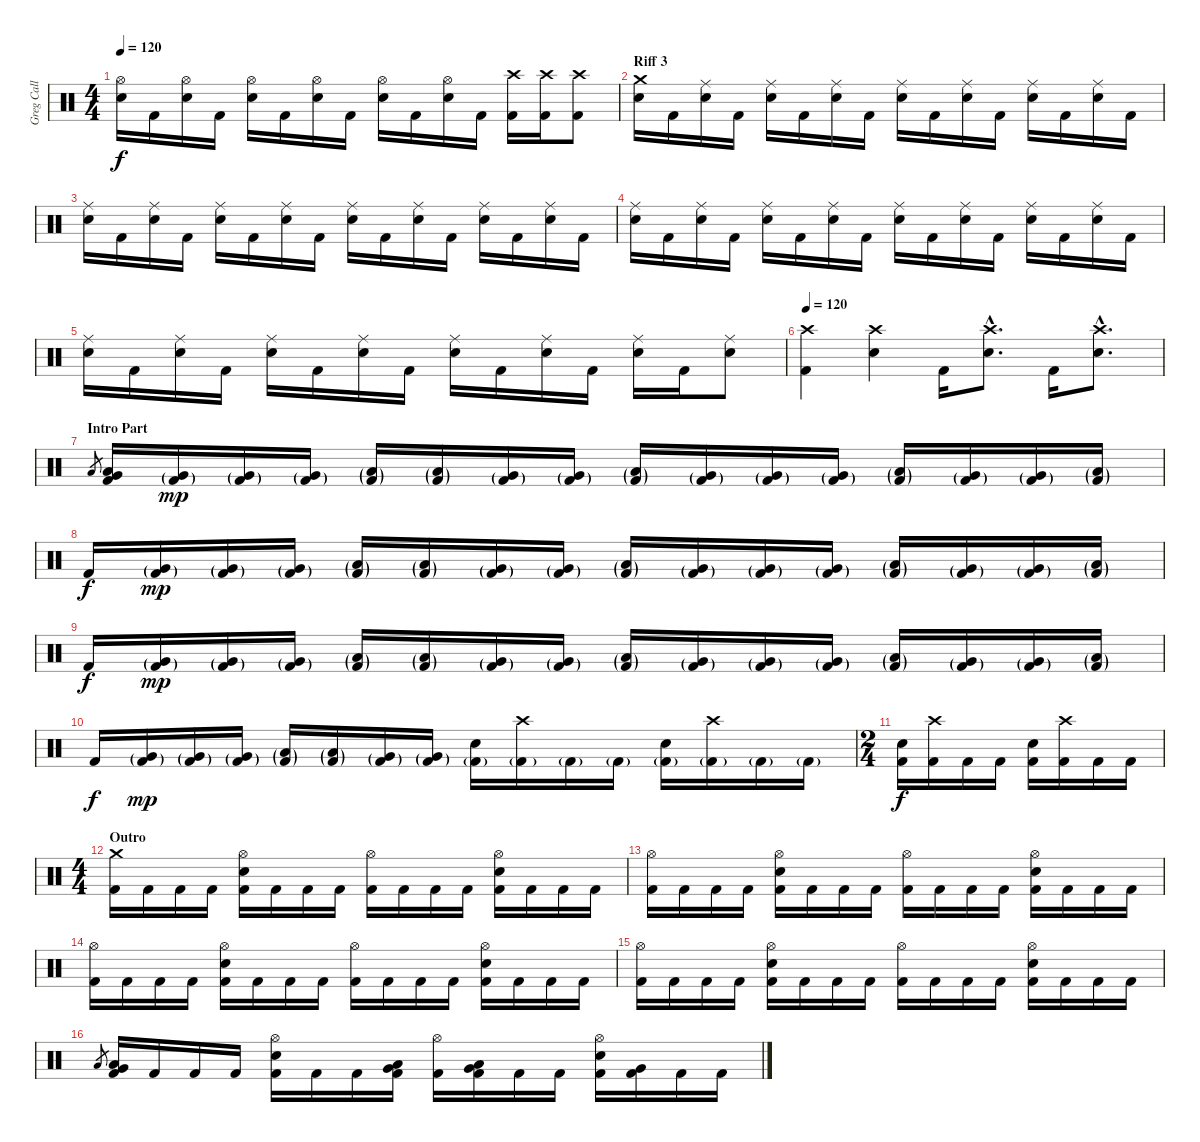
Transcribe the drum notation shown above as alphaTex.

\track ("Greg Call (Drums)" "Greg Call ") {instrument percussion}
\staff {score}
\articulation defaults
\ts (4 4)
\tempo 120
\clef neutral
\ks c
("Hi-Hat (open)" "Snare (hit) 2").16{dy f} "Kick (hit) 2".16 ("Hi-Hat (open)" "Snare (hit) 2").16 "Kick (hit) 2".16 ("Hi-Hat (open)" "Snare (hit) 2").16 "Kick (hit) 2".16 ("Hi-Hat (open)" "Snare (hit) 2").16 "Kick (hit) 2".16 ("Hi-Hat (open)" "Snare (hit) 2").16 "Kick (hit) 2".16 ("Snare (hit) 2" "Hi-Hat (open)").16 "Kick (hit) 2".16 ("Crash high (hit)" "Kick (hit) 2").16 ("Crash high (hit)" "Kick (hit) 2").16 ("Crash high (hit)" "Kick (hit) 2").8 |
\section ("" "Riff 3")
("Crash medium (hit)" "Snare (hit) 2").16 "Kick (hit) 2".16 ("Ride (middle)" "Snare (hit) 2").16 "Kick (hit) 2".16 ("Ride (middle)" "Snare (hit) 2").16 "Kick (hit) 2".16 ("Ride (middle)" "Snare (hit) 2").16 "Kick (hit) 2".16 ("Ride (middle)" "Snare (hit) 2").16 "Kick (hit) 2".16 ("Ride (middle)" "Snare (hit) 2").16 "Kick (hit) 2".16 ("Ride (middle)" "Snare (hit) 2").16 "Kick (hit) 2".16 ("Ride (middle)" "Snare (hit) 2").16 "Kick (hit) 2".16 |
("Ride (middle)" "Snare (hit) 2").16 "Kick (hit) 2".16 ("Ride (middle)" "Snare (hit) 2").16 "Kick (hit) 2".16 ("Ride (middle)" "Snare (hit) 2").16 "Kick (hit) 2".16 ("Ride (middle)" "Snare (hit) 2").16 "Kick (hit) 2".16 ("Ride (middle)" "Snare (hit) 2").16 "Kick (hit) 2".16 ("Ride (middle)" "Snare (hit) 2").16 "Kick (hit) 2".16 ("Ride (middle)" "Snare (hit) 2").16 "Kick (hit) 2".16 ("Ride (middle)" "Snare (hit) 2").16 "Kick (hit) 2".16 |
("Ride (middle)" "Snare (hit) 2").16 "Kick (hit) 2".16 ("Ride (middle)" "Snare (hit) 2").16 "Kick (hit) 2".16 ("Ride (middle)" "Snare (hit) 2").16 "Kick (hit) 2".16 ("Ride (middle)" "Snare (hit) 2").16 "Kick (hit) 2".16 ("Ride (middle)" "Snare (hit) 2").16 "Kick (hit) 2".16 ("Ride (middle)" "Snare (hit) 2").16 "Kick (hit) 2".16 ("Ride (middle)" "Snare (hit) 2").16 "Kick (hit) 2".16 ("Ride (middle)" "Snare (hit) 2").16 "Kick (hit) 2".16 |
("Ride (middle)" "Snare (hit) 2").16 "Kick (hit) 2".16 ("Ride (middle)" "Snare (hit) 2").16 "Kick (hit) 2".16 ("Ride (middle)" "Snare (hit) 2").16 "Kick (hit) 2".16 ("Ride (middle)" "Snare (hit) 2").16 "Kick (hit) 2".16 ("Ride (middle)" "Snare (hit) 2").16 "Kick (hit) 2".16 ("Ride (middle)" "Snare (hit) 2").16 "Kick (hit) 2".16 ("Ride (middle)" "Snare (hit) 2").16 "Kick (hit) 2".16 ("Ride (middle)" "Snare (hit) 2").8 |
\tempo 120
("Crash high (hit)" "Kick (hit) 2").4 ("Crash high (hit)" "Snare (hit) 2").4 "Kick (hit) 2".16 ("Crash high (hit)"{hac} "Snare (hit) 2"{hac}).8{d} "Kick (hit) 2".16 ("Crash high (hit)"{hac} "Snare (hit) 2"{hac}).8{d} |
\section ("" "Intro Part")
"Low Floor Tom (hit)".8{gr} ("Low Floor Tom (hit)" "Very Low Tom (hit)" "Kick (hit) 2").16 ("Very Low Tom (hit)"{g} "Kick (hit) 2"{g}).16{dy mp} ("Very Low Tom (hit)"{g} "Kick (hit) 2"{g}).16 ("Very Low Tom (hit)"{g} "Kick (hit) 2"{g}).16 ("Low Floor Tom (hit)"{g} "Kick (hit) 2"{g}).16 ("Low Floor Tom (hit)"{g} "Kick (hit) 2"{g}).16 ("Very Low Tom (hit)"{g} "Kick (hit) 2"{g}).16 ("Very Low Tom (hit)"{g} "Kick (hit) 2"{g}).16 ("Low Floor Tom (hit)"{g} "Kick (hit) 2"{g}).16 ("Very Low Tom (hit)"{g} "Kick (hit) 2"{g}).16 ("Very Low Tom (hit)"{g} "Kick (hit) 2"{g}).16 ("Very Low Tom (hit)"{g} "Kick (hit) 2"{g}).16 ("Low Floor Tom (hit)"{g} "Kick (hit) 2"{g}).16 ("Very Low Tom (hit)"{g} "Kick (hit) 2"{g}).16 ("Very Low Tom (hit)"{g} "Kick (hit) 2"{g}).16 ("Low Floor Tom (hit)"{g} "Kick (hit) 2"{g}).16 |
"Kick (hit) 2".16{dy f} ("Very Low Tom (hit)"{g} "Kick (hit) 2"{g}).16{dy mp} ("Very Low Tom (hit)"{g} "Kick (hit) 2"{g}).16 ("Very Low Tom (hit)"{g} "Kick (hit) 2"{g}).16 ("Low Floor Tom (hit)"{g} "Kick (hit) 2"{g}).16 ("Low Floor Tom (hit)"{g} "Kick (hit) 2"{g}).16 ("Very Low Tom (hit)"{g} "Kick (hit) 2"{g}).16 ("Very Low Tom (hit)"{g} "Kick (hit) 2"{g}).16 ("Low Floor Tom (hit)"{g} "Kick (hit) 2"{g}).16 ("Very Low Tom (hit)"{g} "Kick (hit) 2"{g}).16 ("Very Low Tom (hit)"{g} "Kick (hit) 2"{g}).16 ("Very Low Tom (hit)"{g} "Kick (hit) 2"{g}).16 ("Low Floor Tom (hit)"{g} "Kick (hit) 2"{g}).16 ("Very Low Tom (hit)"{g} "Kick (hit) 2"{g}).16 ("Very Low Tom (hit)"{g} "Kick (hit) 2"{g}).16 ("Low Floor Tom (hit)"{g} "Kick (hit) 2"{g}).16 |
"Kick (hit) 2".16{dy f} ("Very Low Tom (hit)"{g} "Kick (hit) 2"{g}).16{dy mp} ("Very Low Tom (hit)"{g} "Kick (hit) 2"{g}).16 ("Very Low Tom (hit)"{g} "Kick (hit) 2"{g}).16 ("Low Floor Tom (hit)"{g} "Kick (hit) 2"{g}).16 ("Low Floor Tom (hit)"{g} "Kick (hit) 2"{g}).16 ("Very Low Tom (hit)"{g} "Kick (hit) 2"{g}).16 ("Very Low Tom (hit)"{g} "Kick (hit) 2"{g}).16 ("Low Floor Tom (hit)"{g} "Kick (hit) 2"{g}).16 ("Very Low Tom (hit)"{g} "Kick (hit) 2"{g}).16 ("Very Low Tom (hit)"{g} "Kick (hit) 2"{g}).16 ("Very Low Tom (hit)"{g} "Kick (hit) 2"{g}).16 ("Low Floor Tom (hit)"{g} "Kick (hit) 2"{g}).16 ("Very Low Tom (hit)"{g} "Kick (hit) 2"{g}).16 ("Very Low Tom (hit)"{g} "Kick (hit) 2"{g}).16 ("Low Floor Tom (hit)"{g} "Kick (hit) 2"{g}).16 |
"Kick (hit) 2".16{dy f} ("Very Low Tom (hit)"{g} "Kick (hit) 2"{g}).16{dy mp} ("Very Low Tom (hit)"{g} "Kick (hit) 2"{g}).16 ("Very Low Tom (hit)"{g} "Kick (hit) 2"{g}).16 ("Low Floor Tom (hit)"{g} "Kick (hit) 2"{g}).16 ("Low Floor Tom (hit)"{g} "Kick (hit) 2"{g}).16 ("Very Low Tom (hit)"{g} "Kick (hit) 2"{g}).16 ("Very Low Tom (hit)"{g} "Kick (hit) 2"{g}).16 ("Snare (hit) 2" "Kick (hit) 2"{g}).16 ("Crash high (hit)" "Kick (hit) 2"{g}).16 "Kick (hit) 2"{g}.16 "Kick (hit) 2"{g}.16 ("Snare (hit) 2" "Kick (hit) 2"{g}).16 ("Crash high (hit)" "Kick (hit) 2"{g}).16 "Kick (hit) 2"{g}.16 "Kick (hit) 2"{g}.16 |
\ts (2 4)
("Snare (hit) 2" "Kick (hit) 2").16{dy f} ("Crash high (hit)" "Kick (hit) 2").16 "Kick (hit) 2".16 "Kick (hit) 2".16 ("Snare (hit) 2" "Kick (hit) 2").16 ("Crash high (hit)" "Kick (hit) 2").16 "Kick (hit) 2".16 "Kick (hit) 2".16 |
\ts (4 4)
\section ("" "Outro")
("Crash medium (hit)" "Kick (hit) 2").16 "Kick (hit) 2".16 "Kick (hit) 2".16 "Kick (hit) 2".16 ("Hi-Hat (open)" "Snare (hit) 2" "Kick (hit) 2").16 "Kick (hit) 2".16 "Kick (hit) 2".16 "Kick (hit) 2".16 ("Hi-Hat (open)" "Kick (hit) 2").16 "Kick (hit) 2".16 "Kick (hit) 2".16 "Kick (hit) 2".16 ("Hi-Hat (open)" "Snare (hit) 2" "Kick (hit) 2").16 "Kick (hit) 2".16 "Kick (hit) 2".16 "Kick (hit) 2".16 |
("Hi-Hat (open)" "Kick (hit) 2").16 "Kick (hit) 2".16 "Kick (hit) 2".16 "Kick (hit) 2".16 ("Hi-Hat (open)" "Snare (hit) 2" "Kick (hit) 2").16 "Kick (hit) 2".16 "Kick (hit) 2".16 "Kick (hit) 2".16 ("Hi-Hat (open)" "Kick (hit) 2").16 "Kick (hit) 2".16 "Kick (hit) 2".16 "Kick (hit) 2".16 ("Hi-Hat (open)" "Snare (hit) 2" "Kick (hit) 2").16 "Kick (hit) 2".16 "Kick (hit) 2".16 "Kick (hit) 2".16 |
("Hi-Hat (open)" "Kick (hit) 2").16 "Kick (hit) 2".16 "Kick (hit) 2".16 "Kick (hit) 2".16 ("Hi-Hat (open)" "Snare (hit) 2" "Kick (hit) 2").16 "Kick (hit) 2".16 "Kick (hit) 2".16 "Kick (hit) 2".16 ("Hi-Hat (open)" "Kick (hit) 2").16 "Kick (hit) 2".16 "Kick (hit) 2".16 "Kick (hit) 2".16 ("Hi-Hat (open)" "Snare (hit) 2" "Kick (hit) 2").16 "Kick (hit) 2".16 "Kick (hit) 2".16 "Kick (hit) 2".16 |
("Hi-Hat (open)" "Kick (hit) 2").16 "Kick (hit) 2".16 "Kick (hit) 2".16 "Kick (hit) 2".16 ("Hi-Hat (open)" "Snare (hit) 2" "Kick (hit) 2").16 "Kick (hit) 2".16 "Kick (hit) 2".16 "Kick (hit) 2".16 ("Hi-Hat (open)" "Kick (hit) 2").16 "Kick (hit) 2".16 "Kick (hit) 2".16 "Kick (hit) 2".16 ("Hi-Hat (open)" "Snare (hit) 2" "Kick (hit) 2").16 "Kick (hit) 2".16 "Kick (hit) 2".16 "Kick (hit) 2".16 |
"Low Floor Tom (hit)".8{gr} ("Very Low Tom (hit)" "Low Floor Tom (hit)" "Kick (hit) 2").16 "Kick (hit) 2".16 "Kick (hit) 2".16 "Kick (hit) 2".16 ("Hi-Hat (open)" "Snare (hit) 2" "Kick (hit) 2").16 "Kick (hit) 2".16 "Kick (hit) 2".16 ("Low Tom (hit)" "Very Low Tom (hit)" "Kick (hit) 2").16 ("Hi-Hat (open)" "Kick (hit) 2").16 ("Low Tom (hit)" "Very Low Tom (hit)" "Kick (hit) 2").16 "Kick (hit) 2".16 "Kick (hit) 2".16 ("Hi-Hat (open)" "Snare (hit) 2" "Kick (hit) 2").16 ("Very Low Tom (hit)" "Kick (hit) 2").16 "Kick (hit) 2".16 "Kick (hit) 2".16
